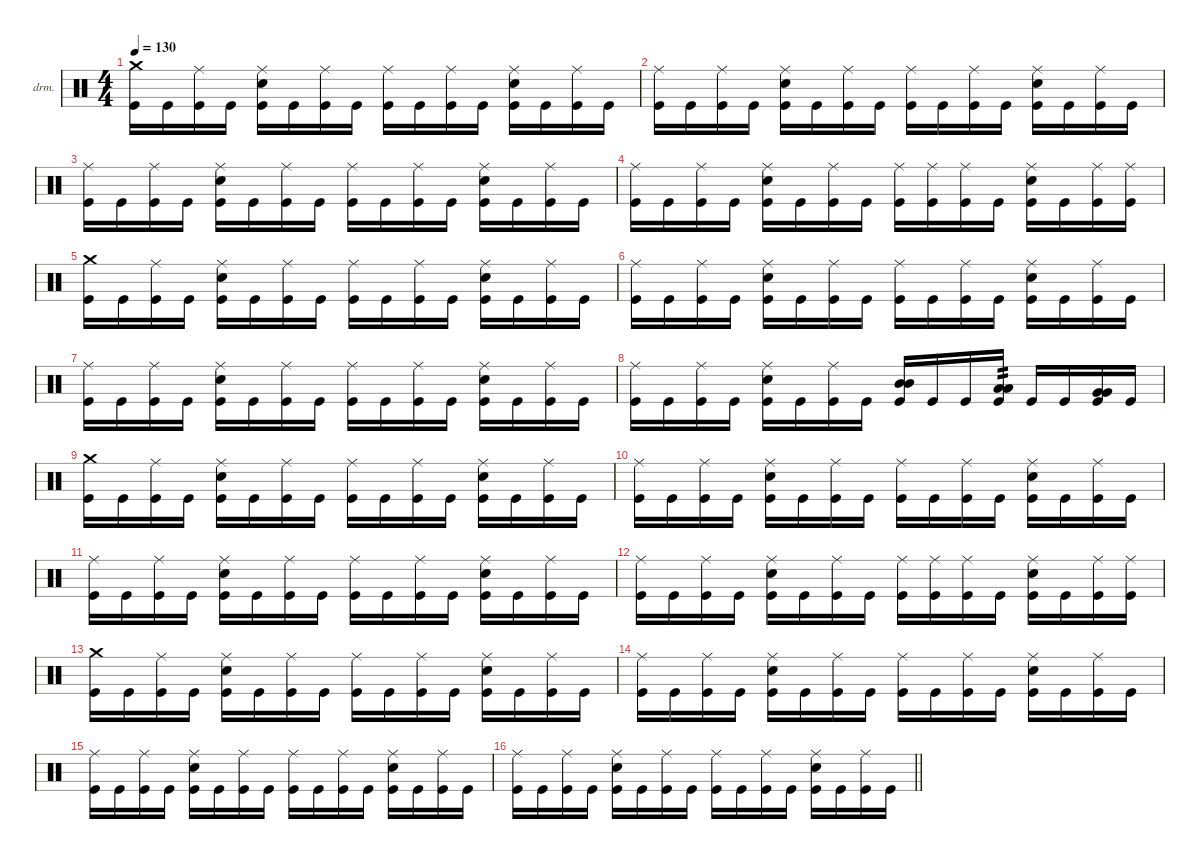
\defaultSystemsLayout 4
\hideDynamics
\bracketExtendMode nobrackets
\firstSystemTrackNameOrientation horizontal
\otherSystemsTrackNameOrientation horizontal
\track ("Drums" "drm.") {instrument percussion}
\staff {score}
\articulation defaults
\ts (4 4)
\tempo 130
\clef neutral
\ks c
("Crash medium (hit)" "Kick (hit)").16{dy f} "Kick (hit)".16 ("Ride (middle)" "Kick (hit)").16 "Kick (hit)".16 ("Ride (middle)" "Snare (hit) 2" "Kick (hit)").16 "Kick (hit)".16 ("Ride (middle)" "Kick (hit)").16 "Kick (hit)".16 ("Ride (middle)" "Kick (hit)").16 "Kick (hit)".16 ("Ride (middle)" "Kick (hit)").16 "Kick (hit)".16 ("Ride (middle)" "Snare (hit) 2" "Kick (hit)").16 "Kick (hit)".16 ("Ride (middle)" "Kick (hit)").16 "Kick (hit)".16 |
("Ride (middle)" "Kick (hit)").16 "Kick (hit)".16 ("Ride (middle)" "Kick (hit)").16 "Kick (hit)".16 ("Ride (middle)" "Snare (hit) 2" "Kick (hit)").16 "Kick (hit)".16 ("Ride (middle)" "Kick (hit)").16 "Kick (hit)".16 ("Ride (middle)" "Kick (hit)").16 "Kick (hit)".16 ("Ride (middle)" "Kick (hit)").16 "Kick (hit)".16 ("Ride (middle)" "Snare (hit) 2" "Kick (hit)").16 "Kick (hit)".16 ("Ride (middle)" "Kick (hit)").16 "Kick (hit)".16 |
("Ride (middle)" "Kick (hit)").16 "Kick (hit)".16 ("Ride (middle)" "Kick (hit)").16 "Kick (hit)".16 ("Ride (middle)" "Snare (hit) 2" "Kick (hit)").16 "Kick (hit)".16 ("Ride (middle)" "Kick (hit)").16 "Kick (hit)".16 ("Ride (middle)" "Kick (hit)").16 "Kick (hit)".16 ("Ride (middle)" "Kick (hit)").16 "Kick (hit)".16 ("Ride (middle)" "Snare (hit) 2" "Kick (hit)").16 "Kick (hit)".16 ("Ride (middle)" "Kick (hit)").16 "Kick (hit)".16 |
("Ride (middle)" "Kick (hit)").16 "Kick (hit)".16 ("Ride (middle)" "Kick (hit)").16 "Kick (hit)".16 ("Ride (middle)" "Snare (hit) 2" "Kick (hit)").16 "Kick (hit)".16 ("Ride (middle)" "Kick (hit)").16 "Kick (hit)".16 ("Ride (middle)" "Kick (hit)").16 ("Ride (middle)" "Kick (hit)").16 ("Ride (middle)" "Kick (hit)").16 "Kick (hit)".16 ("Ride (middle)" "Snare (hit) 2" "Kick (hit)").16 "Kick (hit)".16 ("Ride (middle)" "Kick (hit)").16 ("Ride (middle)" "Kick (hit)").16 |
("Crash medium (hit)" "Kick (hit)").16 "Kick (hit)".16 ("Ride (middle)" "Kick (hit)").16 "Kick (hit)".16 ("Ride (middle)" "Snare (hit) 2" "Kick (hit)").16 "Kick (hit)".16 ("Ride (middle)" "Kick (hit)").16 "Kick (hit)".16 ("Ride (middle)" "Kick (hit)").16 "Kick (hit)".16 ("Ride (middle)" "Kick (hit)").16 "Kick (hit)".16 ("Ride (middle)" "Snare (hit) 2" "Kick (hit)").16 "Kick (hit)".16 ("Ride (middle)" "Kick (hit)").16 "Kick (hit)".16 |
("Ride (middle)" "Kick (hit)").16 "Kick (hit)".16 ("Ride (middle)" "Kick (hit)").16 "Kick (hit)".16 ("Ride (middle)" "Snare (hit) 2" "Kick (hit)").16 "Kick (hit)".16 ("Ride (middle)" "Kick (hit)").16 "Kick (hit)".16 ("Ride (middle)" "Kick (hit)").16 "Kick (hit)".16 ("Ride (middle)" "Kick (hit)").16 "Kick (hit)".16 ("Ride (middle)" "Snare (hit) 2" "Kick (hit)").16 "Kick (hit)".16 ("Ride (middle)" "Kick (hit)").16 "Kick (hit)".16 |
("Ride (middle)" "Kick (hit)").16 "Kick (hit)".16 ("Ride (middle)" "Kick (hit)").16 "Kick (hit)".16 ("Ride (middle)" "Snare (hit) 2" "Kick (hit)").16 "Kick (hit)".16 ("Ride (middle)" "Kick (hit)").16 "Kick (hit)".16 ("Ride (middle)" "Kick (hit)").16 "Kick (hit)".16 ("Ride (middle)" "Kick (hit)").16 "Kick (hit)".16 ("Ride (middle)" "Snare (hit) 2" "Kick (hit)").16 "Kick (hit)".16 ("Ride (middle)" "Kick (hit)").16 "Kick (hit)".16 |
("Ride (middle)" "Kick (hit)").16 "Kick (hit)".16 ("Ride (middle)" "Kick (hit)").16 "Kick (hit)".16 ("Ride (middle)" "Snare (hit) 2" "Kick (hit)").16 "Kick (hit)".16 ("Ride (middle)" "Kick (hit)").16 "Kick (hit)".16 ("Mid Tom (hit)" "Mid Tom (hit)" "Kick (hit)").16 "Kick (hit)".16 "Kick (hit)".16 ("Low Tom (hit)" "Low Tom (hit)" "Kick (hit)").16{tp 2} "Kick (hit)".16 "Kick (hit)".16 ("Very Low Tom (hit)" "Very Low Tom (hit)" "Kick (hit)").16 "Kick (hit)".16 |
("Crash medium (hit)" "Kick (hit)").16 "Kick (hit)".16 ("Ride (middle)" "Kick (hit)").16 "Kick (hit)".16 ("Ride (middle)" "Snare (hit) 2" "Kick (hit)").16 "Kick (hit)".16 ("Ride (middle)" "Kick (hit)").16 "Kick (hit)".16 ("Ride (middle)" "Kick (hit)").16 "Kick (hit)".16 ("Ride (middle)" "Kick (hit)").16 "Kick (hit)".16 ("Ride (middle)" "Snare (hit) 2" "Kick (hit)").16 "Kick (hit)".16 ("Ride (middle)" "Kick (hit)").16 "Kick (hit)".16 |
("Ride (middle)" "Kick (hit)").16 "Kick (hit)".16 ("Ride (middle)" "Kick (hit)").16 "Kick (hit)".16 ("Ride (middle)" "Snare (hit) 2" "Kick (hit)").16 "Kick (hit)".16 ("Ride (middle)" "Kick (hit)").16 "Kick (hit)".16 ("Ride (middle)" "Kick (hit)").16 "Kick (hit)".16 ("Ride (middle)" "Kick (hit)").16 "Kick (hit)".16 ("Ride (middle)" "Snare (hit) 2" "Kick (hit)").16 "Kick (hit)".16 ("Ride (middle)" "Kick (hit)").16 "Kick (hit)".16 |
("Ride (middle)" "Kick (hit)").16 "Kick (hit)".16 ("Ride (middle)" "Kick (hit)").16 "Kick (hit)".16 ("Ride (middle)" "Snare (hit) 2" "Kick (hit)").16 "Kick (hit)".16 ("Ride (middle)" "Kick (hit)").16 "Kick (hit)".16 ("Ride (middle)" "Kick (hit)").16 "Kick (hit)".16 ("Ride (middle)" "Kick (hit)").16 "Kick (hit)".16 ("Ride (middle)" "Snare (hit) 2" "Kick (hit)").16 "Kick (hit)".16 ("Ride (middle)" "Kick (hit)").16 "Kick (hit)".16 |
("Ride (middle)" "Kick (hit)").16 "Kick (hit)".16 ("Ride (middle)" "Kick (hit)").16 "Kick (hit)".16 ("Ride (middle)" "Snare (hit) 2" "Kick (hit)").16 "Kick (hit)".16 ("Ride (middle)" "Kick (hit)").16 "Kick (hit)".16 ("Ride (middle)" "Kick (hit)").16 ("Ride (middle)" "Kick (hit)").16 ("Ride (middle)" "Kick (hit)").16 "Kick (hit)".16 ("Ride (middle)" "Snare (hit) 2" "Kick (hit)").16 "Kick (hit)".16 ("Ride (middle)" "Kick (hit)").16 ("Ride (middle)" "Kick (hit)").16 |
("Crash medium (hit)" "Kick (hit)").16 "Kick (hit)".16 ("Ride (middle)" "Kick (hit)").16 "Kick (hit)".16 ("Ride (middle)" "Snare (hit) 2" "Kick (hit)").16 "Kick (hit)".16 ("Ride (middle)" "Kick (hit)").16 "Kick (hit)".16 ("Ride (middle)" "Kick (hit)").16 "Kick (hit)".16 ("Ride (middle)" "Kick (hit)").16 "Kick (hit)".16 ("Ride (middle)" "Snare (hit) 2" "Kick (hit)").16 "Kick (hit)".16 ("Ride (middle)" "Kick (hit)").16 "Kick (hit)".16 |
("Ride (middle)" "Kick (hit)").16 "Kick (hit)".16 ("Ride (middle)" "Kick (hit)").16 "Kick (hit)".16 ("Ride (middle)" "Snare (hit) 2" "Kick (hit)").16 "Kick (hit)".16 ("Ride (middle)" "Kick (hit)").16 "Kick (hit)".16 ("Ride (middle)" "Kick (hit)").16 "Kick (hit)".16 ("Ride (middle)" "Kick (hit)").16 "Kick (hit)".16 ("Ride (middle)" "Snare (hit) 2" "Kick (hit)").16 "Kick (hit)".16 ("Ride (middle)" "Kick (hit)").16 "Kick (hit)".16 |
("Ride (middle)" "Kick (hit)").16 "Kick (hit)".16 ("Ride (middle)" "Kick (hit)").16 "Kick (hit)".16 ("Ride (middle)" "Snare (hit) 2" "Kick (hit)").16 "Kick (hit)".16 ("Ride (middle)" "Kick (hit)").16 "Kick (hit)".16 ("Ride (middle)" "Kick (hit)").16 "Kick (hit)".16 ("Ride (middle)" "Kick (hit)").16 "Kick (hit)".16 ("Ride (middle)" "Snare (hit) 2" "Kick (hit)").16 "Kick (hit)".16 ("Ride (middle)" "Kick (hit)").16 "Kick (hit)".16 |
\barLineRight lightlight
("Ride (middle)" "Kick (hit)").16 "Kick (hit)".16 ("Ride (middle)" "Kick (hit)").16 "Kick (hit)".16 ("Ride (middle)" "Snare (hit) 2" "Kick (hit)").16 "Kick (hit)".16 ("Ride (middle)" "Kick (hit)").16 "Kick (hit)".16 ("Ride (middle)" "Kick (hit)").16 "Kick (hit)".16 ("Ride (middle)" "Kick (hit)").16 "Kick (hit)".16 ("Ride (middle)" "Snare (hit) 2" "Kick (hit)").16 "Kick (hit)".16 ("Ride (middle)" "Kick (hit)").16 "Kick (hit)".16
